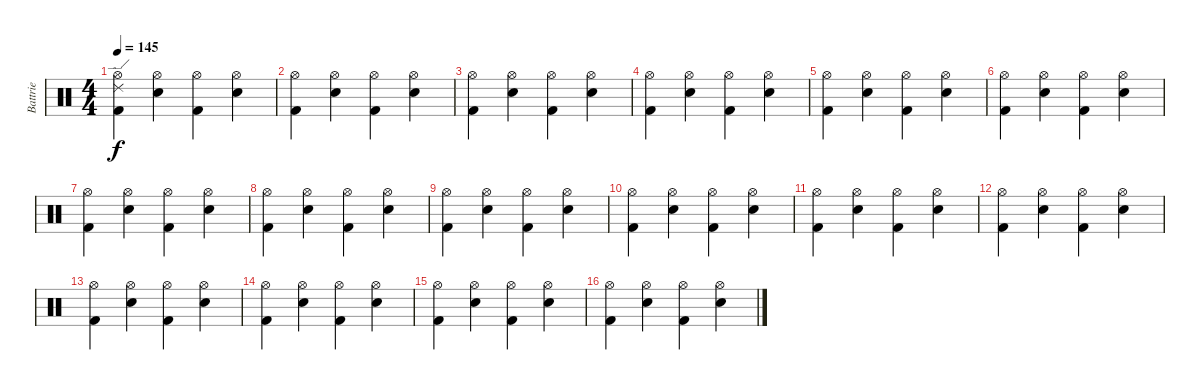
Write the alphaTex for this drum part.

\track ("Battrie" "Battrie") {instrument percussion}
\staff {score}
\articulation defaults
\ts (4 4)
\tempo 145
\clef neutral
\ks c
("Hi-Hat (open)" "Kick (hit) 2" "Ride (edge) 2").4{dy f} ("Hi-Hat (open)" "Snare (hit) 2").4 ("Hi-Hat (open)" "Kick (hit) 2").4 ("Snare (hit) 2" "Hi-Hat (open)").4 |
("Hi-Hat (open)" "Kick (hit) 2").4 ("Hi-Hat (open)" "Snare (hit) 2").4 ("Hi-Hat (open)" "Kick (hit) 2").4 ("Snare (hit) 2" "Hi-Hat (open)").4 |
("Hi-Hat (open)" "Kick (hit) 2").4 ("Hi-Hat (open)" "Snare (hit) 2").4 ("Hi-Hat (open)" "Kick (hit) 2").4 ("Snare (hit) 2" "Hi-Hat (open)").4 |
("Hi-Hat (open)" "Kick (hit) 2").4 ("Hi-Hat (open)" "Snare (hit) 2").4 ("Hi-Hat (open)" "Kick (hit) 2").4 ("Snare (hit) 2" "Hi-Hat (open)").4 |
("Hi-Hat (open)" "Kick (hit) 2").4 ("Hi-Hat (open)" "Snare (hit) 2").4 ("Hi-Hat (open)" "Kick (hit) 2").4 ("Snare (hit) 2" "Hi-Hat (open)").4 |
("Hi-Hat (open)" "Kick (hit) 2").4 ("Hi-Hat (open)" "Snare (hit) 2").4 ("Hi-Hat (open)" "Kick (hit) 2").4 ("Snare (hit) 2" "Hi-Hat (open)").4 |
("Hi-Hat (open)" "Kick (hit) 2").4 ("Hi-Hat (open)" "Snare (hit) 2").4 ("Hi-Hat (open)" "Kick (hit) 2").4 ("Snare (hit) 2" "Hi-Hat (open)").4 |
("Hi-Hat (open)" "Kick (hit) 2").4 ("Hi-Hat (open)" "Snare (hit) 2").4 ("Hi-Hat (open)" "Kick (hit) 2").4 ("Snare (hit) 2" "Hi-Hat (open)").4 |
("Hi-Hat (open)" "Kick (hit) 2").4 ("Hi-Hat (open)" "Snare (hit) 2").4 ("Hi-Hat (open)" "Kick (hit) 2").4 ("Snare (hit) 2" "Hi-Hat (open)").4 |
("Hi-Hat (open)" "Kick (hit) 2").4 ("Hi-Hat (open)" "Snare (hit) 2").4 ("Hi-Hat (open)" "Kick (hit) 2").4 ("Snare (hit) 2" "Hi-Hat (open)").4 |
("Hi-Hat (open)" "Kick (hit) 2").4 ("Hi-Hat (open)" "Snare (hit) 2").4 ("Hi-Hat (open)" "Kick (hit) 2").4 ("Snare (hit) 2" "Hi-Hat (open)").4 |
("Hi-Hat (open)" "Kick (hit) 2").4 ("Hi-Hat (open)" "Snare (hit) 2").4 ("Hi-Hat (open)" "Kick (hit) 2").4 ("Snare (hit) 2" "Hi-Hat (open)").4 |
("Hi-Hat (open)" "Kick (hit) 2").4 ("Hi-Hat (open)" "Snare (hit) 2").4 ("Hi-Hat (open)" "Kick (hit) 2").4 ("Snare (hit) 2" "Hi-Hat (open)").4 |
("Hi-Hat (open)" "Kick (hit) 2").4 ("Hi-Hat (open)" "Snare (hit) 2").4 ("Hi-Hat (open)" "Kick (hit) 2").4 ("Snare (hit) 2" "Hi-Hat (open)").4 |
("Hi-Hat (open)" "Kick (hit) 2").4 ("Hi-Hat (open)" "Snare (hit) 2").4 ("Hi-Hat (open)" "Kick (hit) 2").4 ("Snare (hit) 2" "Hi-Hat (open)").4 |
("Hi-Hat (open)" "Kick (hit) 2").4 ("Hi-Hat (open)" "Snare (hit) 2").4 ("Hi-Hat (open)" "Kick (hit) 2").4 ("Snare (hit) 2" "Hi-Hat (open)").4
